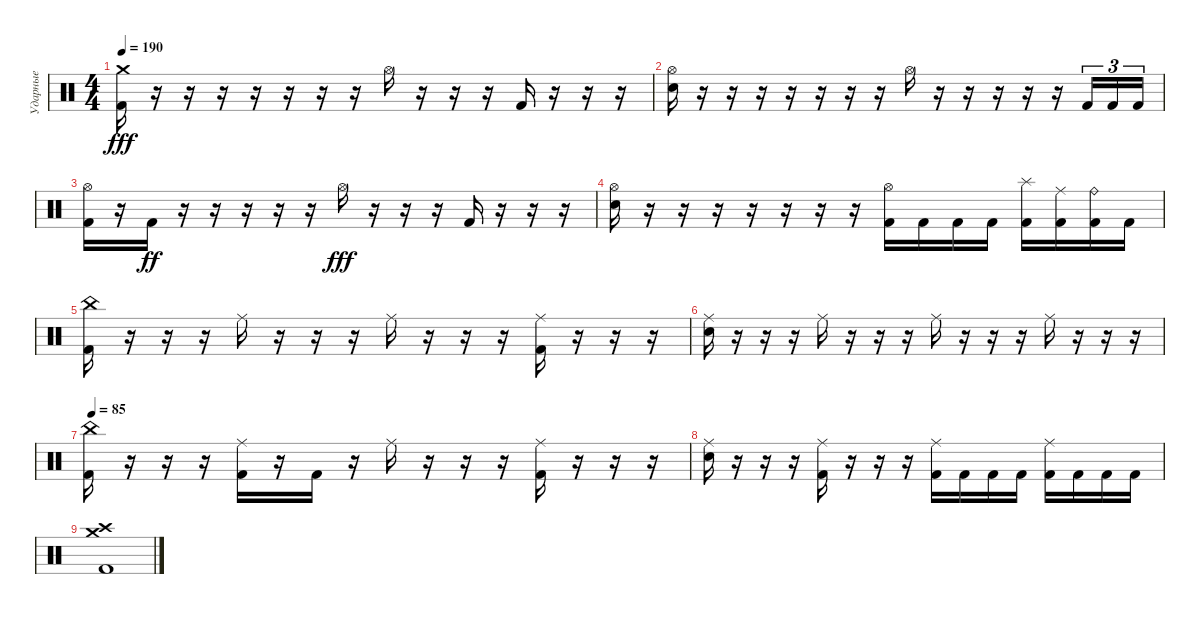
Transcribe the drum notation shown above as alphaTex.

\track ("Ударные" "Ударные") {instrument percussion}
\staff {score}
\articulation defaults
\ts (4 4)
\tempo 190
\clef neutral
\ks c
("Crash medium (hit)" "Kick (hit) 2").16{dy fff} r.16 r.16 r.16 r.16 r.16 r.16 r.16 "Hi-Hat (open)".16 r.16 r.16 r.16 "Kick (hit) 2".16 r.16 r.16 r.16 |
("Hi-Hat (open)" "Electric Snare (hit)").16 r.16 r.16 r.16 r.16 r.16 r.16 r.16 "Hi-Hat (open)".16 r.16 r.16 r.16 r.16 r.16 "Kick (hit) 2".16{tu (3 2)} "Kick (hit) 2".16{tu (3 2)} "Kick (hit) 2".16{tu (3 2)} |
("Hi-Hat (open)" "Kick (hit) 2").16 r.16 "Kick (hit) 2".16{dy ff} r.16 r.16 r.16 r.16 r.16 "Hi-Hat (open)".16{dy fff} r.16 r.16 r.16 "Kick (hit) 2".16 r.16 r.16 r.16 |
("Hi-Hat (open)" "Electric Snare (hit)").16 r.16 r.16 r.16 r.16 r.16 r.16 r.16 ("Hi-Hat (open)" "Kick (hit) 2").16 "Kick (hit) 2".16 "Kick (hit) 2".16 "Kick (hit) 2".16 ("Splash (hit)" "Kick (hit) 2").16 ("Ride (middle)" "Kick (hit) 2").16 ("Ride (bell)" "Kick (hit) 2").16 "Kick (hit) 2".16 |
("China (hit)" "Kick (hit) 2").16 r.16 r.16 r.16 "Ride (middle)".16 r.16 r.16 r.16 "Ride (middle)".16 r.16 r.16 r.16 ("Ride (middle)" "Kick (hit) 2").16 r.16 r.16 r.16 |
("Ride (middle)" "Electric Snare (hit)").16 r.16 r.16 r.16 "Ride (middle)".16 r.16 r.16 r.16 "Ride (middle)".16 r.16 r.16 r.16 "Ride (middle)".16 r.16 r.16 r.16 |
\tempo 85
("China (hit)" "Kick (hit) 2").16 r.16 r.16 r.16 ("Ride (middle)" "Kick (hit) 2").16 r.16 "Kick (hit) 2".16 r.16 "Ride (middle)".16 r.16 r.16 r.16 ("Ride (middle)" "Kick (hit) 2").16 r.16 r.16 r.16 |
("Ride (middle)" "Electric Snare (hit)").16 r.16 r.16 r.16 ("Ride (middle)" "Kick (hit) 2").16 r.16 r.16 r.16 ("Ride (middle)" "Kick (hit) 2").16 "Kick (hit) 2".16 "Kick (hit) 2".16 "Kick (hit) 2".16 ("Ride (middle)" "Kick (hit) 2").16 "Kick (hit) 2".16 "Kick (hit) 2".16 "Kick (hit) 2".16 |
("Kick (hit) 2" "Crash high (hit)" "Crash medium (hit)").1
